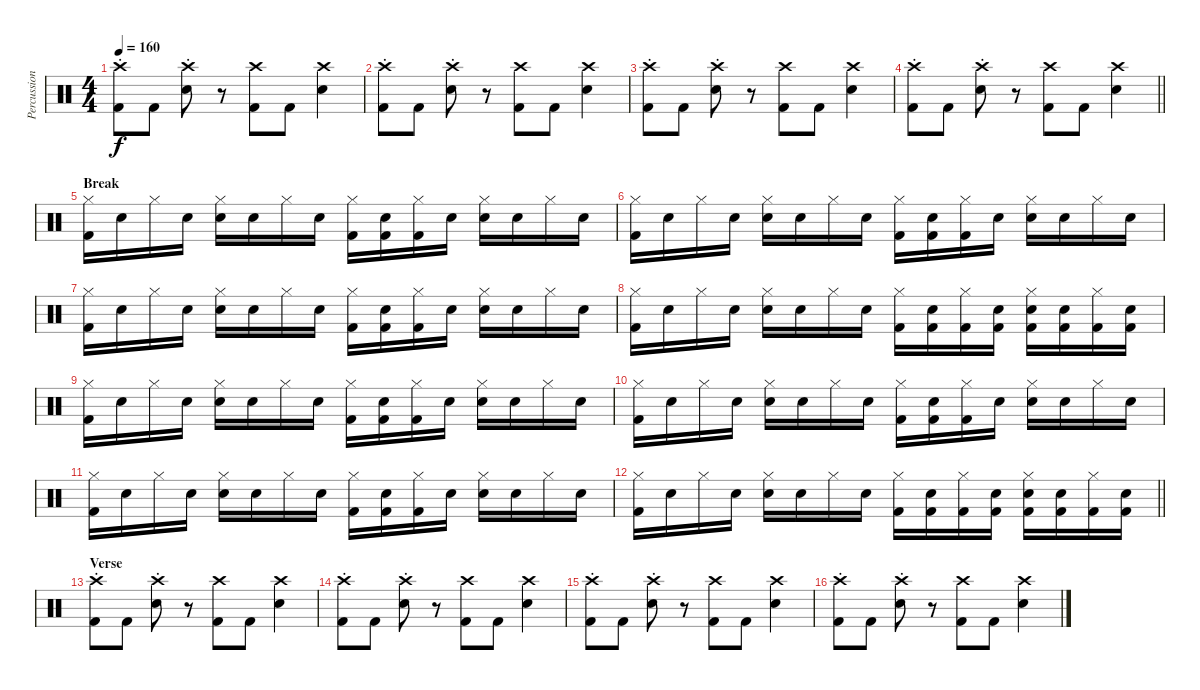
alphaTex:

\track ("Percussion" "Percussion") {instrument percussion}
\staff {score}
\articulation defaults
\ts (4 4)
\tempo 160
\clef neutral
\ks c
("Crash high (hit)"{st} "Kick (hit) 2").8{dy f} "Kick (hit) 2".8 ("Crash high (hit)"{st} "Snare (hit) 2").8 r.8 ("Crash high (hit)" "Kick (hit) 2").8 "Kick (hit) 2".8 ("Crash high (hit)" "Snare (hit) 2").4 |
("Crash high (hit)"{st} "Kick (hit) 2").8 "Kick (hit) 2".8 ("Crash high (hit)"{st} "Snare (hit) 2").8 r.8 ("Crash high (hit)" "Kick (hit) 2").8 "Kick (hit) 2".8 ("Crash high (hit)" "Snare (hit) 2").4 |
("Crash high (hit)"{st} "Kick (hit) 2").8 "Kick (hit) 2".8 ("Crash high (hit)"{st} "Snare (hit) 2").8 r.8 ("Crash high (hit)" "Kick (hit) 2").8 "Kick (hit) 2".8 ("Crash high (hit)" "Snare (hit) 2").4 |
\barLineRight lightlight
("Crash high (hit)"{st} "Kick (hit) 2").8 "Kick (hit) 2".8 ("Crash high (hit)"{st} "Snare (hit) 2").8 r.8 ("Crash high (hit)" "Kick (hit) 2").8 "Kick (hit) 2".8 ("Crash high (hit)" "Snare (hit) 2").4 |
\section ("" "Break")
("Hi-Hat (closed)" "Kick (hit) 2").16 "Snare (hit)".16 "Hi-Hat (closed)".16 "Snare (hit)".16 ("Hi-Hat (closed)" "Snare (hit) 2").16 "Snare (hit)".16 "Hi-Hat (closed)".16 "Snare (hit)".16 ("Hi-Hat (closed)" "Kick (hit) 2").16 ("Snare (hit)" "Kick (hit) 2").16 ("Hi-Hat (closed)" "Kick (hit) 2").16 "Snare (hit)".16 ("Hi-Hat (closed)" "Snare (hit) 2").16 "Snare (hit)".16 "Hi-Hat (closed)".16 "Snare (hit)".16 |
("Hi-Hat (closed)" "Kick (hit) 2").16 "Snare (hit)".16 "Hi-Hat (closed)".16 "Snare (hit)".16 ("Hi-Hat (closed)" "Snare (hit) 2").16 "Snare (hit)".16 "Hi-Hat (closed)".16 "Snare (hit)".16 ("Hi-Hat (closed)" "Kick (hit) 2").16 ("Snare (hit)" "Kick (hit) 2").16 ("Hi-Hat (closed)" "Kick (hit) 2").16 "Snare (hit)".16 ("Hi-Hat (closed)" "Snare (hit) 2").16 "Snare (hit)".16 "Hi-Hat (closed)".16 "Snare (hit)".16 |
("Hi-Hat (closed)" "Kick (hit) 2").16 "Snare (hit)".16 "Hi-Hat (closed)".16 "Snare (hit)".16 ("Hi-Hat (closed)" "Snare (hit) 2").16 "Snare (hit)".16 "Hi-Hat (closed)".16 "Snare (hit)".16 ("Hi-Hat (closed)" "Kick (hit) 2").16 ("Snare (hit)" "Kick (hit) 2").16 ("Hi-Hat (closed)" "Kick (hit) 2").16 "Snare (hit)".16 ("Hi-Hat (closed)" "Snare (hit) 2").16 "Snare (hit)".16 "Hi-Hat (closed)".16 "Snare (hit)".16 |
("Hi-Hat (closed)" "Kick (hit) 2").16 "Snare (hit)".16 "Hi-Hat (closed)".16 "Snare (hit)".16 ("Hi-Hat (closed)" "Snare (hit) 2").16 "Snare (hit)".16 "Hi-Hat (closed)".16 "Snare (hit)".16 ("Hi-Hat (closed)" "Kick (hit) 2").16 ("Snare (hit)" "Kick (hit) 2").16 ("Hi-Hat (closed)" "Kick (hit) 2").16 ("Snare (hit)" "Kick (hit) 2").16 ("Hi-Hat (closed)" "Snare (hit) 2" "Kick (hit) 2").16 ("Snare (hit)" "Kick (hit) 2").16 ("Hi-Hat (closed)" "Kick (hit) 2").16 ("Snare (hit)" "Kick (hit) 2").16 |
("Hi-Hat (closed)" "Kick (hit) 2").16 "Snare (hit)".16 "Hi-Hat (closed)".16 "Snare (hit)".16 ("Hi-Hat (closed)" "Snare (hit) 2").16 "Snare (hit)".16 "Hi-Hat (closed)".16 "Snare (hit)".16 ("Hi-Hat (closed)" "Kick (hit) 2").16 ("Snare (hit)" "Kick (hit) 2").16 ("Hi-Hat (closed)" "Kick (hit) 2").16 "Snare (hit)".16 ("Hi-Hat (closed)" "Snare (hit) 2").16 "Snare (hit)".16 "Hi-Hat (closed)".16 "Snare (hit)".16 |
("Hi-Hat (closed)" "Kick (hit) 2").16 "Snare (hit)".16 "Hi-Hat (closed)".16 "Snare (hit)".16 ("Hi-Hat (closed)" "Snare (hit) 2").16 "Snare (hit)".16 "Hi-Hat (closed)".16 "Snare (hit)".16 ("Hi-Hat (closed)" "Kick (hit) 2").16 ("Snare (hit)" "Kick (hit) 2").16 ("Hi-Hat (closed)" "Kick (hit) 2").16 "Snare (hit)".16 ("Hi-Hat (closed)" "Snare (hit) 2").16 "Snare (hit)".16 "Hi-Hat (closed)".16 "Snare (hit)".16 |
("Hi-Hat (closed)" "Kick (hit) 2").16 "Snare (hit)".16 "Hi-Hat (closed)".16 "Snare (hit)".16 ("Hi-Hat (closed)" "Snare (hit) 2").16 "Snare (hit)".16 "Hi-Hat (closed)".16 "Snare (hit)".16 ("Hi-Hat (closed)" "Kick (hit) 2").16 ("Snare (hit)" "Kick (hit) 2").16 ("Hi-Hat (closed)" "Kick (hit) 2").16 "Snare (hit)".16 ("Hi-Hat (closed)" "Snare (hit) 2").16 "Snare (hit)".16 "Hi-Hat (closed)".16 "Snare (hit)".16 |
\barLineRight lightlight
("Hi-Hat (closed)" "Kick (hit) 2").16 "Snare (hit)".16 "Hi-Hat (closed)".16 "Snare (hit)".16 ("Hi-Hat (closed)" "Snare (hit) 2").16 "Snare (hit)".16 "Hi-Hat (closed)".16 "Snare (hit)".16 ("Hi-Hat (closed)" "Kick (hit) 2").16 ("Snare (hit)" "Kick (hit) 2").16 ("Hi-Hat (closed)" "Kick (hit) 2").16 ("Snare (hit)" "Kick (hit) 2").16 ("Hi-Hat (closed)" "Snare (hit) 2" "Kick (hit) 2").16 ("Snare (hit)" "Kick (hit) 2").16 ("Hi-Hat (closed)" "Kick (hit) 2").16 ("Snare (hit)" "Kick (hit) 2").16 |
\section ("" "Verse")
("Crash high (hit)"{st} "Kick (hit) 2").8 "Kick (hit) 2".8 ("Crash high (hit)"{st} "Snare (hit) 2").8 r.8 ("Crash high (hit)" "Kick (hit) 2").8 "Kick (hit) 2".8 ("Crash high (hit)" "Snare (hit) 2").4 |
("Crash high (hit)"{st} "Kick (hit) 2").8 "Kick (hit) 2".8 ("Crash high (hit)"{st} "Snare (hit) 2").8 r.8 ("Crash high (hit)" "Kick (hit) 2").8 "Kick (hit) 2".8 ("Crash high (hit)" "Snare (hit) 2").4 |
("Crash high (hit)"{st} "Kick (hit) 2").8 "Kick (hit) 2".8 ("Crash high (hit)"{st} "Snare (hit) 2").8 r.8 ("Crash high (hit)" "Kick (hit) 2").8 "Kick (hit) 2".8 ("Crash high (hit)" "Snare (hit) 2").4 |
("Crash high (hit)"{st} "Kick (hit) 2").8 "Kick (hit) 2".8 ("Crash high (hit)"{st} "Snare (hit) 2").8 r.8 ("Crash high (hit)" "Kick (hit) 2").8 "Kick (hit) 2".8 ("Crash high (hit)" "Snare (hit) 2").4
